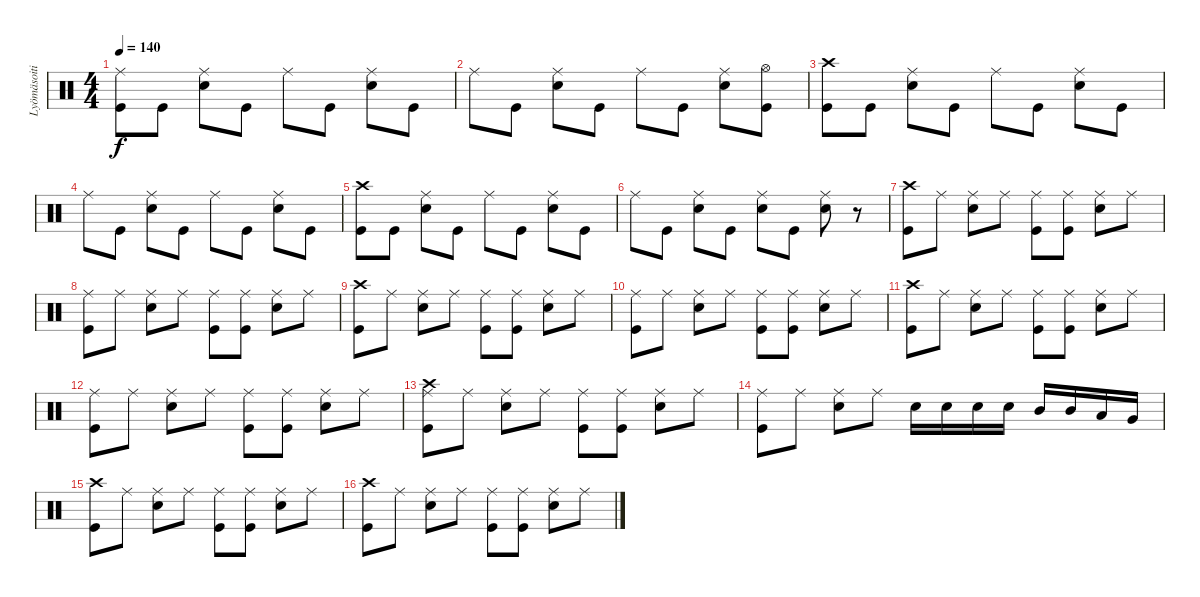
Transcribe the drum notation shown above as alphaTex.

\track ("Lyömäsoitin" "Lyömäsoiti") {instrument percussion}
\staff {score}
\articulation defaults
\ts (4 4)
\tempo 140
\clef neutral
\ks c
("Ride (middle)" "Kick (hit)").8{dy f} "Kick (hit)".8 ("Ride (middle)" "Snare (hit) 2").8 "Kick (hit)".8 "Ride (middle)".8 "Kick (hit)".8 ("Ride (middle)" "Snare (hit) 2").8 "Kick (hit)".8 |
"Ride (middle)".8 "Kick (hit)".8 ("Ride (middle)" "Snare (hit) 2").8 "Kick (hit)".8 "Ride (middle)".8 "Kick (hit)".8 ("Ride (middle)" "Snare (hit) 2").8 ("Hi-Hat (open)" "Kick (hit)").8 |
("Crash high (hit)" "Kick (hit)").8 "Kick (hit)".8 ("Ride (middle)" "Snare (hit) 2").8 "Kick (hit)".8 "Ride (middle)".8 "Kick (hit)".8 ("Ride (middle)" "Snare (hit) 2").8 "Kick (hit)".8 |
"Ride (middle)".8 "Kick (hit)".8 ("Ride (middle)" "Snare (hit) 2").8 "Kick (hit)".8 "Ride (middle)".8 "Kick (hit)".8 ("Ride (middle)" "Snare (hit) 2").8 "Kick (hit)".8 |
("Crash high (hit)" "Kick (hit)").8 "Kick (hit)".8 ("Ride (middle)" "Snare (hit) 2").8 "Kick (hit)".8 "Ride (middle)".8 "Kick (hit)".8 ("Ride (middle)" "Snare (hit) 2").8 "Kick (hit)".8 |
"Ride (middle)".8 "Kick (hit)".8 ("Ride (middle)" "Snare (hit) 2").8 "Kick (hit)".8 ("Ride (middle)" "Snare (hit) 2").8 "Kick (hit)".8 ("Ride (middle)" "Snare (hit) 2").8 r.8 |
("Crash high (hit)" "Kick (hit)").8 "Ride (middle)".8 ("Ride (middle)" "Snare (hit) 2").8 "Ride (middle)".8 ("Ride (middle)" "Kick (hit)").8 ("Ride (middle)" "Kick (hit)").8 ("Ride (middle)" "Snare (hit) 2").8 "Ride (middle)".8 |
("Ride (middle)" "Kick (hit)").8 "Ride (middle)".8 ("Ride (middle)" "Snare (hit) 2").8 "Ride (middle)".8 ("Ride (middle)" "Kick (hit)").8 ("Ride (middle)" "Kick (hit)").8 ("Ride (middle)" "Snare (hit) 2").8 "Ride (middle)".8 |
("Crash high (hit)" "Kick (hit)").8 "Ride (middle)".8 ("Ride (middle)" "Snare (hit) 2").8 "Ride (middle)".8 ("Ride (middle)" "Kick (hit)").8 ("Ride (middle)" "Kick (hit)").8 ("Ride (middle)" "Snare (hit) 2").8 "Ride (middle)".8 |
("Ride (middle)" "Kick (hit)").8 "Ride (middle)".8 ("Ride (middle)" "Snare (hit) 2").8 "Ride (middle)".8 ("Ride (middle)" "Kick (hit)").8 ("Ride (middle)" "Kick (hit)").8 ("Ride (middle)" "Snare (hit) 2").8 "Ride (middle)".8 |
("Crash high (hit)" "Kick (hit)").8 "Ride (middle)".8 ("Ride (middle)" "Snare (hit) 2").8 "Ride (middle)".8 ("Ride (middle)" "Kick (hit)").8 ("Ride (middle)" "Kick (hit)").8 ("Ride (middle)" "Snare (hit) 2").8 "Ride (middle)".8 |
("Ride (middle)" "Kick (hit)").8 "Ride (middle)".8 ("Ride (middle)" "Snare (hit) 2").8 "Ride (middle)".8 ("Ride (middle)" "Kick (hit)").8 ("Ride (middle)" "Kick (hit)").8 ("Ride (middle)" "Snare (hit) 2").8 "Ride (middle)".8 |
("Crash high (hit)" "Ride (middle)" "Kick (hit)").8 "Ride (middle)".8 ("Ride (middle)" "Snare (hit) 2").8 "Ride (middle)".8 ("Ride (middle)" "Kick (hit)").8 ("Ride (middle)" "Kick (hit)").8 ("Ride (middle)" "Snare (hit) 2").8 "Ride (middle)".8 |
("Ride (middle)" "Kick (hit)").8 "Ride (middle)".8 ("Ride (middle)" "Snare (hit) 2").8 "Ride (middle)".8 "Snare (hit) 2".16 "Snare (hit) 2".16 "Snare (hit) 2".16 "Snare (hit) 2".16 "Mid Tom (hit)".16 "Mid Tom (hit)".16 "Low Tom (hit)".16 "Very Low Tom (hit)".16 |
("Crash high (hit)" "Kick (hit)").8 "Ride (middle)".8 ("Ride (middle)" "Snare (hit) 2").8 "Ride (middle)".8 ("Ride (middle)" "Kick (hit)").8 ("Ride (middle)" "Kick (hit)").8 ("Ride (middle)" "Snare (hit) 2").8 "Ride (middle)".8 |
("Crash high (hit)" "Kick (hit)").8 "Ride (middle)".8 ("Ride (middle)" "Snare (hit) 2").8 "Ride (middle)".8 ("Ride (middle)" "Kick (hit)").8 ("Ride (middle)" "Kick (hit)").8 ("Ride (middle)" "Snare (hit) 2").8 "Ride (middle)".8
